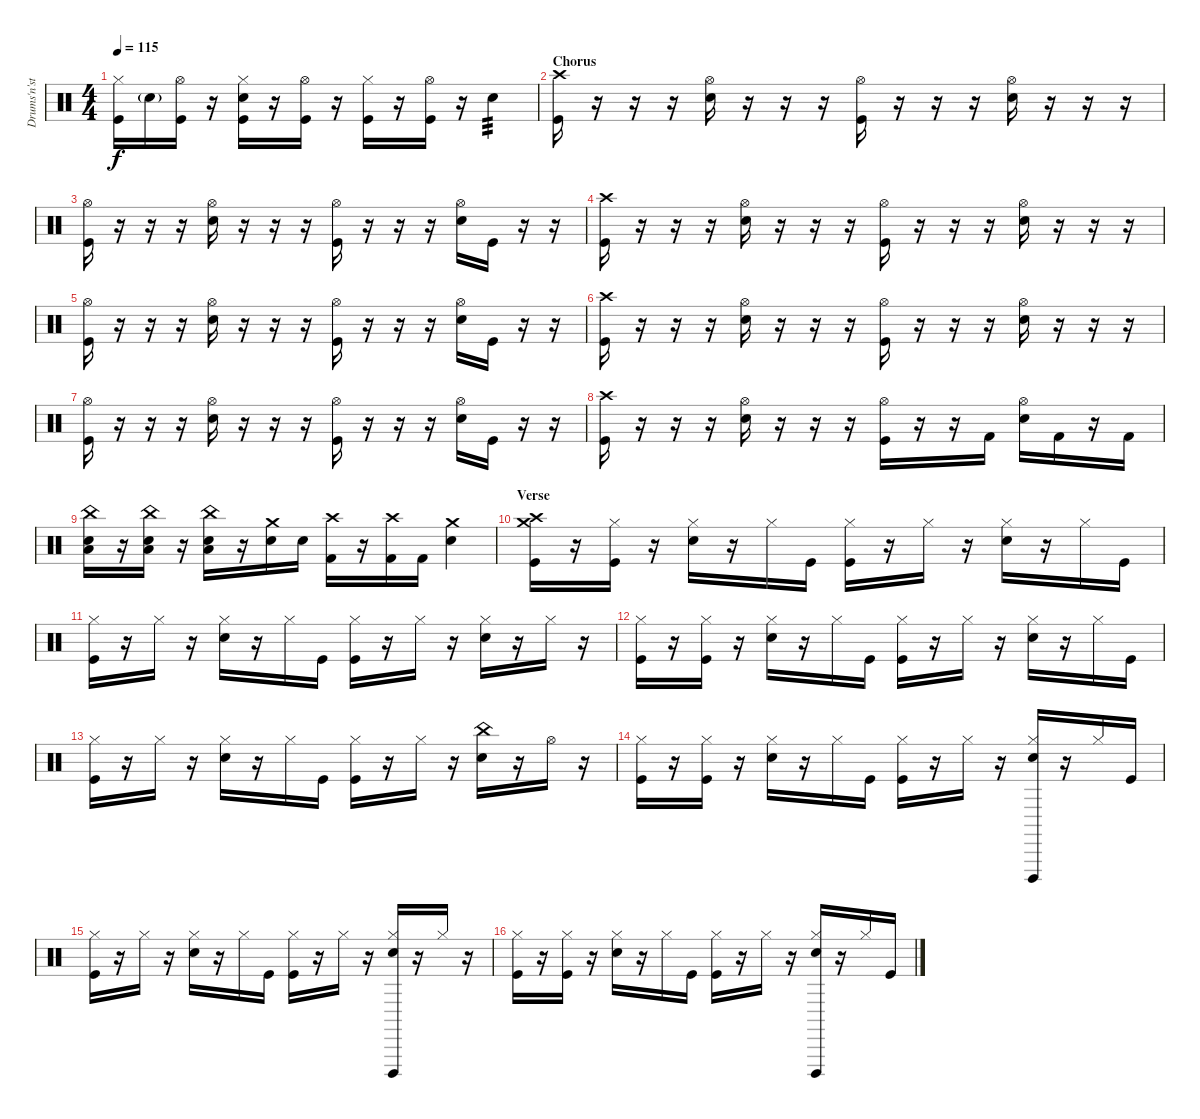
\track ("Drums'n'stuff" "Drums'n'st") {instrument percussion}
\staff {score}
\articulation defaults
\ts (4 4)
\tempo 115
\clef neutral
\ks c
("Hi-Hat (closed)" "Kick (hit)").16{dy f} "Electric Snare (hit)"{g}.16 ("Hi-Hat (open)" "Kick (hit)").16 r.16 ("Hi-Hat (closed)" "Electric Snare (hit)" "Kick (hit)").16 r.16 ("Hi-Hat (open)" "Kick (hit)").16 r.16 ("Hi-Hat (closed)" "Kick (hit)").16 r.16 ("Hi-Hat (open)" "Kick (hit)").16 r.16 "Electric Snare (hit)".4{tp 3} |
\section ("" "Chorus")
("Crash high (hit)" "Kick (hit)").16 r.16 r.16 r.16 ("Hi-Hat (open)" "Electric Snare (hit)").16 r.16 r.16 r.16 ("Hi-Hat (open)" "Kick (hit)").16 r.16 r.16 r.16 ("Hi-Hat (open)" "Electric Snare (hit)").16 r.16 r.16 r.16 |
("Hi-Hat (open)" "Kick (hit)").16 r.16 r.16 r.16 ("Hi-Hat (open)" "Electric Snare (hit)").16 r.16 r.16 r.16 ("Hi-Hat (open)" "Kick (hit)").16 r.16 r.16 r.16 ("Hi-Hat (open)" "Electric Snare (hit)").16 "Kick (hit)".16 r.16 r.16 |
("Crash high (hit)" "Kick (hit)").16 r.16 r.16 r.16 ("Hi-Hat (open)" "Electric Snare (hit)").16 r.16 r.16 r.16 ("Hi-Hat (open)" "Kick (hit)").16 r.16 r.16 r.16 ("Hi-Hat (open)" "Electric Snare (hit)").16 r.16 r.16 r.16 |
("Hi-Hat (open)" "Kick (hit)").16 r.16 r.16 r.16 ("Hi-Hat (open)" "Electric Snare (hit)").16 r.16 r.16 r.16 ("Hi-Hat (open)" "Kick (hit)").16 r.16 r.16 r.16 ("Hi-Hat (open)" "Electric Snare (hit)").16 "Kick (hit)".16 r.16 r.16 |
("Crash high (hit)" "Kick (hit)").16 r.16 r.16 r.16 ("Hi-Hat (open)" "Electric Snare (hit)").16 r.16 r.16 r.16 ("Hi-Hat (open)" "Kick (hit)").16 r.16 r.16 r.16 ("Hi-Hat (open)" "Electric Snare (hit)").16 r.16 r.16 r.16 |
("Hi-Hat (open)" "Kick (hit)").16 r.16 r.16 r.16 ("Hi-Hat (open)" "Electric Snare (hit)").16 r.16 r.16 r.16 ("Hi-Hat (open)" "Kick (hit)").16 r.16 r.16 r.16 ("Hi-Hat (open)" "Electric Snare (hit)").16 "Kick (hit)".16 r.16 r.16 |
("Crash high (hit)" "Kick (hit)").16 r.16 r.16 r.16 ("Hi-Hat (open)" "Electric Snare (hit)").16 r.16 r.16 r.16 ("Hi-Hat (open)" "Kick (hit)").16 r.16 r.16 "Kick (hit) 2".16 ("Hi-Hat (open)" "Electric Snare (hit)").16 "Kick (hit) 2".16 r.16 "Kick (hit) 2".16 |
("China (hit)" "Electric Snare (hit)" "Low Floor Tom (hit)").16 r.16 ("China (hit)" "Electric Snare (hit)" "Low Floor Tom (hit)").16 r.16 ("China (hit)" "Electric Snare (hit)" "Low Floor Tom (hit)").16 r.16 ("Crash medium (hit)" "Electric Snare (hit)").16 "Electric Snare (hit)".16 ("Crash high (hit)" "Kick (hit) 2").16 r.16 ("Crash high (hit)" "Kick (hit) 2").16 "Kick (hit) 2".16 ("Crash medium (hit)" "Electric Snare (hit)").4 |
\section ("" "Verse")
("Crash high (hit)" "Crash medium (hit)" "Kick (hit)").16 r.16 ("Hi-Hat (closed)" "Kick (hit)").16 r.16 ("Hi-Hat (closed)" "Electric Snare (hit)").16 r.16 "Hi-Hat (closed)".16 "Kick (hit)".16 ("Hi-Hat (closed)" "Kick (hit)").16 r.16 "Hi-Hat (closed)".16 r.16 ("Hi-Hat (closed)" "Electric Snare (hit)").16 r.16 "Hi-Hat (closed)".16 "Kick (hit)".16 |
("Hi-Hat (closed)" "Kick (hit)").16 r.16 "Hi-Hat (closed)".16 r.16 ("Hi-Hat (closed)" "Electric Snare (hit)").16 r.16 "Hi-Hat (closed)".16 "Kick (hit)".16 ("Hi-Hat (closed)" "Kick (hit)").16 r.16 "Hi-Hat (closed)".16 r.16 ("Hi-Hat (closed)" "Electric Snare (hit)").16 r.16 "Hi-Hat (closed)".16 r.16 |
("Hi-Hat (closed)" "Kick (hit)").16 r.16 ("Hi-Hat (closed)" "Kick (hit)").16 r.16 ("Hi-Hat (closed)" "Electric Snare (hit)").16 r.16 "Hi-Hat (closed)".16 "Kick (hit)".16 ("Hi-Hat (closed)" "Kick (hit)").16 r.16 "Hi-Hat (closed)".16 r.16 ("Hi-Hat (closed)" "Electric Snare (hit)").16 r.16 "Hi-Hat (closed)".16 "Kick (hit)".16 |
("Hi-Hat (closed)" "Kick (hit)").16 r.16 "Hi-Hat (closed)".16 r.16 ("Hi-Hat (closed)" "Electric Snare (hit)").16 r.16 "Hi-Hat (closed)".16 "Kick (hit)".16 ("Hi-Hat (closed)" "Kick (hit)").16 r.16 "Hi-Hat (closed)".16 r.16 ("China (hit)" "Electric Snare (hit)").16 r.16 "Hi-Hat (open)".16 r.16 |
("Hi-Hat (closed)" "Kick (hit)").16 r.16 ("Hi-Hat (closed)" "Kick (hit)").16 r.16 ("Hi-Hat (closed)" "Electric Snare (hit)").16 r.16 "Hi-Hat (closed)".16 "Kick (hit)".16 ("Hi-Hat (closed)" "Kick (hit)").16 r.16 "Hi-Hat (closed)".16 r.16 ("Hi-Hat (closed)" "Electric Snare (hit)" "Cuica (open)").16 r.16 "Hi-Hat (closed)".16 "Kick (hit)".16 |
("Hi-Hat (closed)" "Kick (hit)").16 r.16 "Hi-Hat (closed)".16 r.16 ("Hi-Hat (closed)" "Electric Snare (hit)").16 r.16 "Hi-Hat (closed)".16 "Kick (hit)".16 ("Hi-Hat (closed)" "Kick (hit)").16 r.16 "Hi-Hat (closed)".16 r.16 ("Hi-Hat (closed)" "Electric Snare (hit)" "Cuica (open)").16 r.16 "Hi-Hat (closed)".16 r.16 |
("Hi-Hat (closed)" "Kick (hit)").16 r.16 ("Hi-Hat (closed)" "Kick (hit)").16 r.16 ("Hi-Hat (closed)" "Electric Snare (hit)").16 r.16 "Hi-Hat (closed)".16 "Kick (hit)".16 ("Hi-Hat (closed)" "Kick (hit)").16 r.16 "Hi-Hat (closed)".16 r.16 ("Hi-Hat (closed)" "Electric Snare (hit)" "Cuica (open)").16 r.16 "Hi-Hat (closed)".16 "Kick (hit)".16
